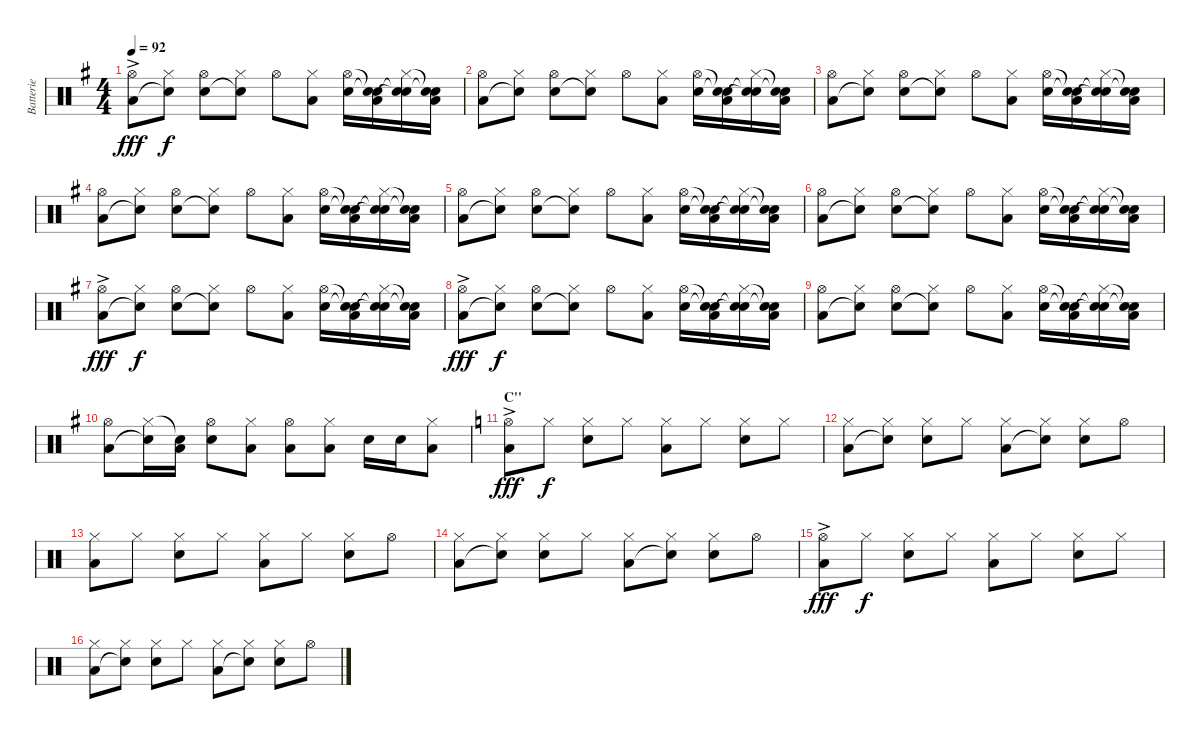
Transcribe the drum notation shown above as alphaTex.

\track ("Batterie" "Batterie") {instrument percussion}
\staff {score}
\articulation defaults
\ts (4 4)
\tempo 92
\clef neutral
\ks g
("Hi-Hat (open)"{ac} "Low Floor Tom (hit)").8{dy fff} ("Hi-Hat (closed)" "Snare (hit)"{t}).8{dy f} ("Hi-Hat (open)" "Electric Snare (hit)").8 ("Hi-Hat (closed)" "Snare (hit)"{t}).8 "Hi-Hat (open)".8 ("Hi-Hat (closed)" "Low Floor Tom (hit)").8 ("Hi-Hat (open)" "Electric Snare (hit)").16 ("Snare (hit)"{t} "Snare (hit)"{t} "Low Floor Tom (hit)").16 ("Hi-Hat (closed)" "Snare (hit)"{t} "Snare (hit)"{t}).16 ("Snare (hit)"{t} "Snare (hit)"{t} "Low Floor Tom (hit)").16 |
("Hi-Hat (open)" "Low Floor Tom (hit)").8 ("Hi-Hat (closed)" "Snare (hit)"{t}).8 ("Hi-Hat (open)" "Electric Snare (hit)").8 ("Hi-Hat (closed)" "Snare (hit)"{t}).8 "Hi-Hat (open)".8 ("Hi-Hat (closed)" "Low Floor Tom (hit)").8 ("Hi-Hat (open)" "Electric Snare (hit)").16 ("Snare (hit)"{t} "Snare (hit)"{t} "Low Floor Tom (hit)").16 ("Hi-Hat (closed)" "Snare (hit)"{t} "Snare (hit)"{t}).16 ("Snare (hit)"{t} "Snare (hit)"{t} "Low Floor Tom (hit)").16 |
("Hi-Hat (open)" "Low Floor Tom (hit)").8 ("Hi-Hat (closed)" "Snare (hit)"{t}).8 ("Hi-Hat (open)" "Electric Snare (hit)").8 ("Hi-Hat (closed)" "Snare (hit)"{t}).8 "Hi-Hat (open)".8 ("Hi-Hat (closed)" "Low Floor Tom (hit)").8 ("Hi-Hat (open)" "Electric Snare (hit)").16 ("Snare (hit)"{t} "Snare (hit)"{t} "Low Floor Tom (hit)").16 ("Hi-Hat (closed)" "Snare (hit)"{t} "Snare (hit)"{t}).16 ("Snare (hit)"{t} "Snare (hit)"{t} "Low Floor Tom (hit)").16 |
("Hi-Hat (open)" "Low Floor Tom (hit)").8 ("Hi-Hat (closed)" "Snare (hit)"{t}).8 ("Hi-Hat (open)" "Electric Snare (hit)").8 ("Hi-Hat (closed)" "Snare (hit)"{t}).8 "Hi-Hat (open)".8 ("Hi-Hat (closed)" "Low Floor Tom (hit)").8 ("Hi-Hat (open)" "Electric Snare (hit)").16 ("Snare (hit)"{t} "Snare (hit)"{t} "Low Floor Tom (hit)").16 ("Hi-Hat (closed)" "Snare (hit)"{t} "Snare (hit)"{t}).16 ("Snare (hit)"{t} "Snare (hit)"{t} "Low Floor Tom (hit)").16 |
("Hi-Hat (open)" "Low Floor Tom (hit)").8 ("Hi-Hat (closed)" "Snare (hit)"{t}).8 ("Hi-Hat (open)" "Electric Snare (hit)").8 ("Hi-Hat (closed)" "Snare (hit)"{t}).8 "Hi-Hat (open)".8 ("Hi-Hat (closed)" "Low Floor Tom (hit)").8 ("Hi-Hat (open)" "Electric Snare (hit)").16 ("Snare (hit)"{t} "Snare (hit)"{t} "Low Floor Tom (hit)").16 ("Hi-Hat (closed)" "Snare (hit)"{t} "Snare (hit)"{t}).16 ("Snare (hit)"{t} "Snare (hit)"{t} "Low Floor Tom (hit)").16 |
("Hi-Hat (open)" "Low Floor Tom (hit)").8 ("Hi-Hat (closed)" "Snare (hit)"{t}).8 ("Hi-Hat (open)" "Electric Snare (hit)").8 ("Hi-Hat (closed)" "Snare (hit)"{t}).8 "Hi-Hat (open)".8 ("Hi-Hat (closed)" "Low Floor Tom (hit)").8 ("Hi-Hat (open)" "Electric Snare (hit)").16 ("Snare (hit)"{t} "Snare (hit)"{t} "Low Floor Tom (hit)").16 ("Hi-Hat (closed)" "Snare (hit)"{t} "Snare (hit)"{t}).16 ("Snare (hit)"{t} "Snare (hit)"{t} "Low Floor Tom (hit)").16 |
("Hi-Hat (open)"{ac} "Low Floor Tom (hit)").8{dy fff} ("Hi-Hat (closed)" "Snare (hit)"{t}).8{dy f} ("Hi-Hat (open)" "Electric Snare (hit)").8 ("Hi-Hat (closed)" "Snare (hit)"{t}).8 "Hi-Hat (open)".8 ("Hi-Hat (closed)" "Low Floor Tom (hit)").8 ("Hi-Hat (open)" "Electric Snare (hit)").16 ("Snare (hit)"{t} "Snare (hit)"{t} "Low Floor Tom (hit)").16 ("Hi-Hat (closed)" "Snare (hit)"{t} "Snare (hit)"{t}).16 ("Snare (hit)"{t} "Snare (hit)"{t} "Low Floor Tom (hit)").16 |
("Hi-Hat (open)"{ac} "Low Floor Tom (hit)").8{dy fff} ("Hi-Hat (closed)" "Snare (hit)"{t}).8{dy f} ("Hi-Hat (open)" "Electric Snare (hit)").8 ("Hi-Hat (closed)" "Snare (hit)"{t}).8 "Hi-Hat (open)".8 ("Hi-Hat (closed)" "Low Floor Tom (hit)").8 ("Hi-Hat (open)" "Electric Snare (hit)").16 ("Snare (hit)"{t} "Snare (hit)"{t} "Low Floor Tom (hit)").16 ("Hi-Hat (closed)" "Snare (hit)"{t} "Snare (hit)"{t}).16 ("Snare (hit)"{t} "Snare (hit)"{t} "Low Floor Tom (hit)").16 |
("Hi-Hat (open)" "Low Floor Tom (hit)").8 ("Hi-Hat (closed)" "Snare (hit)"{t}).8 ("Hi-Hat (open)" "Electric Snare (hit)").8 ("Hi-Hat (closed)" "Snare (hit)"{t}).8 "Hi-Hat (open)".8 ("Hi-Hat (closed)" "Low Floor Tom (hit)").8 ("Hi-Hat (open)" "Electric Snare (hit)").16 ("Snare (hit)"{t} "Snare (hit)"{t} "Low Floor Tom (hit)").16 ("Hi-Hat (closed)" "Snare (hit)"{t} "Snare (hit)"{t}).16 ("Snare (hit)"{t} "Snare (hit)"{t} "Low Floor Tom (hit)").16 |
("Hi-Hat (open)" "Low Floor Tom (hit)").8 ("Hi-Hat (closed)" "Snare (hit)"{t}).16 ("Snare (hit)"{t} "Low Floor Tom (hit)").16 ("Hi-Hat (open)" "Electric Snare (hit)").8 ("Hi-Hat (closed)" "Low Floor Tom (hit)").8 ("Hi-Hat (open)" "Low Floor Tom (hit)").8 ("Hi-Hat (closed)" "Low Floor Tom (hit)").8 "Electric Snare (hit)".16 "Electric Snare (hit)".16 ("Hi-Hat (closed)" "Low Floor Tom (hit)").8 |
\section ("" "C''")
\ks c
("Hi-Hat (open)"{ac} "Low Floor Tom (hit)").8{dy fff} "Hi-Hat (closed)".8{dy f} ("Hi-Hat (closed)" "Snare (hit) 2").8 "Hi-Hat (closed)".8 ("Hi-Hat (closed)" "Low Floor Tom (hit)").8 "Hi-Hat (closed)".8 ("Hi-Hat (closed)" "Snare (hit) 2").8 "Hi-Hat (closed)".8 |
("Hi-Hat (closed)" "Low Floor Tom (hit)").8 ("Hi-Hat (closed)" "Snare (hit)"{t}).8 ("Hi-Hat (closed)" "Snare (hit) 2").8 "Hi-Hat (closed)".8 ("Hi-Hat (closed)" "Low Floor Tom (hit)").8 ("Hi-Hat (closed)" "Snare (hit)"{t}).8 ("Hi-Hat (closed)" "Snare (hit) 2").8 "Hi-Hat (open)".8 |
("Hi-Hat (closed)" "Low Floor Tom (hit)").8 "Hi-Hat (closed)".8 ("Hi-Hat (closed)" "Snare (hit) 2").8 "Hi-Hat (closed)".8 ("Hi-Hat (closed)" "Low Floor Tom (hit)").8 "Hi-Hat (closed)".8 ("Hi-Hat (closed)" "Snare (hit) 2").8 "Hi-Hat (open)".8 |
("Hi-Hat (closed)" "Low Floor Tom (hit)").8 ("Hi-Hat (closed)" "Snare (hit)"{t}).8 ("Hi-Hat (closed)" "Snare (hit) 2").8 "Hi-Hat (closed)".8 ("Hi-Hat (closed)" "Low Floor Tom (hit)").8 ("Hi-Hat (closed)" "Snare (hit)"{t}).8 ("Hi-Hat (closed)" "Snare (hit) 2").8 "Hi-Hat (open)".8 |
("Hi-Hat (open)"{ac} "Low Floor Tom (hit)").8{dy fff} "Hi-Hat (closed)".8{dy f} ("Hi-Hat (closed)" "Snare (hit) 2").8 "Hi-Hat (closed)".8 ("Hi-Hat (closed)" "Low Floor Tom (hit)").8 "Hi-Hat (closed)".8 ("Hi-Hat (closed)" "Snare (hit) 2").8 "Hi-Hat (closed)".8 |
("Hi-Hat (closed)" "Low Floor Tom (hit)").8 ("Hi-Hat (closed)" "Snare (hit)"{t}).8 ("Hi-Hat (closed)" "Snare (hit) 2").8 "Hi-Hat (closed)".8 ("Hi-Hat (closed)" "Low Floor Tom (hit)").8 ("Hi-Hat (closed)" "Snare (hit)"{t}).8 ("Hi-Hat (closed)" "Snare (hit) 2").8 "Hi-Hat (open)".8
